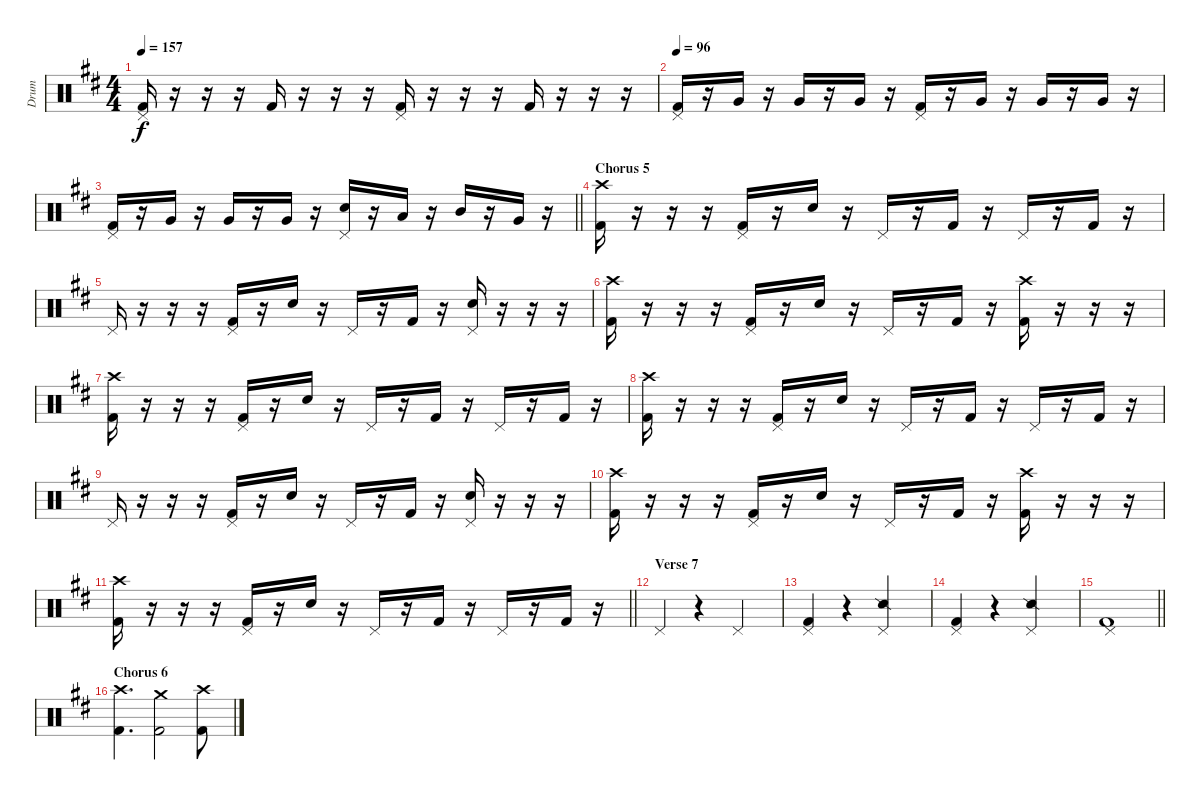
\track ("Drum" "Drum") {instrument percussion}
\staff {score}
\articulation defaults
\ts (4 4)
\tempo 157
\clef neutral
\ks d
("Kick (hit) 2" "Pedal Hi-Hat (hit)").16{dy f} r.16 r.16 r.16 "Kick (hit) 2".16 r.16 r.16 r.16 ("Kick (hit) 2" "Pedal Hi-Hat (hit)").16 r.16 r.16 r.16 "Kick (hit) 2".16 r.16 r.16 r.16 |
\tempo 96
("Kick (hit) 2" "Pedal Hi-Hat (hit)").16 r.16 "Very Low Tom (hit)".16 r.16 "Very Low Tom (hit)".16 r.16 "Very Low Tom (hit)".16 r.16 ("Kick (hit) 2" "Pedal Hi-Hat (hit)").16 r.16 "Very Low Tom (hit)".16 r.16 "Very Low Tom (hit)".16 r.16 "Very Low Tom (hit)".16 r.16 |
\barLineRight lightlight
("Kick (hit) 2" "Pedal Hi-Hat (hit)").16 r.16 "Very Low Tom (hit)".16 r.16 "Very Low Tom (hit)".16 r.16 "Very Low Tom (hit)".16 r.16 ("Electric Snare (hit)" "Pedal Hi-Hat (hit)").16 r.16 "Low Tom (hit)".16 r.16 "Mid Tom (hit)".16 r.16 "Very Low Tom (hit)".16 r.16 |
\section ("" "Chorus 5")
("Kick (hit) 2" "Crash high (hit)").16 r.16 r.16 r.16 ("Kick (hit) 2" "Pedal Hi-Hat (hit)").16 r.16 "Electric Snare (hit)".16 r.16 "Pedal Hi-Hat (hit)".16 r.16 "Kick (hit) 2".16 r.16 "Pedal Hi-Hat (hit)".16 r.16 "Kick (hit) 2".16 r.16 |
"Pedal Hi-Hat (hit)".16 r.16 r.16 r.16 ("Kick (hit) 2" "Pedal Hi-Hat (hit)").16 r.16 "Electric Snare (hit)".16 r.16 "Pedal Hi-Hat (hit)".16 r.16 "Kick (hit) 2".16 r.16 ("Electric Snare (hit)" "Pedal Hi-Hat (hit)").16 r.16 r.16 r.16 |
("Kick (hit) 2" "Crash high (hit)").16 r.16 r.16 r.16 ("Kick (hit) 2" "Pedal Hi-Hat (hit)").16 r.16 "Electric Snare (hit)".16 r.16 "Pedal Hi-Hat (hit)".16 r.16 "Kick (hit) 2".16 r.16 ("Kick (hit) 2" "Crash high (hit)").16 r.16 r.16 r.16 |
("Kick (hit) 2" "Crash high (hit)").16 r.16 r.16 r.16 ("Kick (hit) 2" "Pedal Hi-Hat (hit)").16 r.16 "Electric Snare (hit)".16 r.16 "Pedal Hi-Hat (hit)".16 r.16 "Kick (hit) 2".16 r.16 "Pedal Hi-Hat (hit)".16 r.16 "Kick (hit) 2".16 r.16 |
("Kick (hit) 2" "Crash high (hit)").16 r.16 r.16 r.16 ("Kick (hit) 2" "Pedal Hi-Hat (hit)").16 r.16 "Electric Snare (hit)".16 r.16 "Pedal Hi-Hat (hit)".16 r.16 "Kick (hit) 2".16 r.16 "Pedal Hi-Hat (hit)".16 r.16 "Kick (hit) 2".16 r.16 |
"Pedal Hi-Hat (hit)".16 r.16 r.16 r.16 ("Kick (hit) 2" "Pedal Hi-Hat (hit)").16 r.16 "Electric Snare (hit)".16 r.16 "Pedal Hi-Hat (hit)".16 r.16 "Kick (hit) 2".16 r.16 ("Electric Snare (hit)" "Pedal Hi-Hat (hit)").16 r.16 r.16 r.16 |
("Kick (hit) 2" "Crash high (hit)").16 r.16 r.16 r.16 ("Kick (hit) 2" "Pedal Hi-Hat (hit)").16 r.16 "Electric Snare (hit)".16 r.16 "Pedal Hi-Hat (hit)".16 r.16 "Kick (hit) 2".16 r.16 ("Kick (hit) 2" "Crash high (hit)").16 r.16 r.16 r.16 |
\barLineRight lightlight
("Kick (hit) 2" "Crash high (hit)").16 r.16 r.16 r.16 ("Kick (hit) 2" "Pedal Hi-Hat (hit)").16 r.16 "Electric Snare (hit)".16 r.16 "Pedal Hi-Hat (hit)".16 r.16 "Kick (hit) 2".16 r.16 "Pedal Hi-Hat (hit)".16 r.16 "Kick (hit) 2".16 r.16 |
\section ("" "Verse 7")
"Pedal Hi-Hat (hit)".4 r.4 "Pedal Hi-Hat (hit)".2 |
("Pedal Hi-Hat (hit)" "Kick (hit) 2").4 r.4 ("Pedal Hi-Hat (hit)" "Snare (side stick) 2").2 |
("Pedal Hi-Hat (hit)" "Kick (hit) 2").4 r.4 ("Pedal Hi-Hat (hit)" "Snare (side stick) 2").2 |
\barLineRight lightlight
("Kick (hit) 2" "Pedal Hi-Hat (hit)").1 |
\section ("" "Chorus 6")
("Kick (hit) 2" "Crash high (hit)").4{d} ("Kick (hit) 2" "Crash medium (hit)").2 ("Kick (hit) 2" "Crash high (hit)").8
